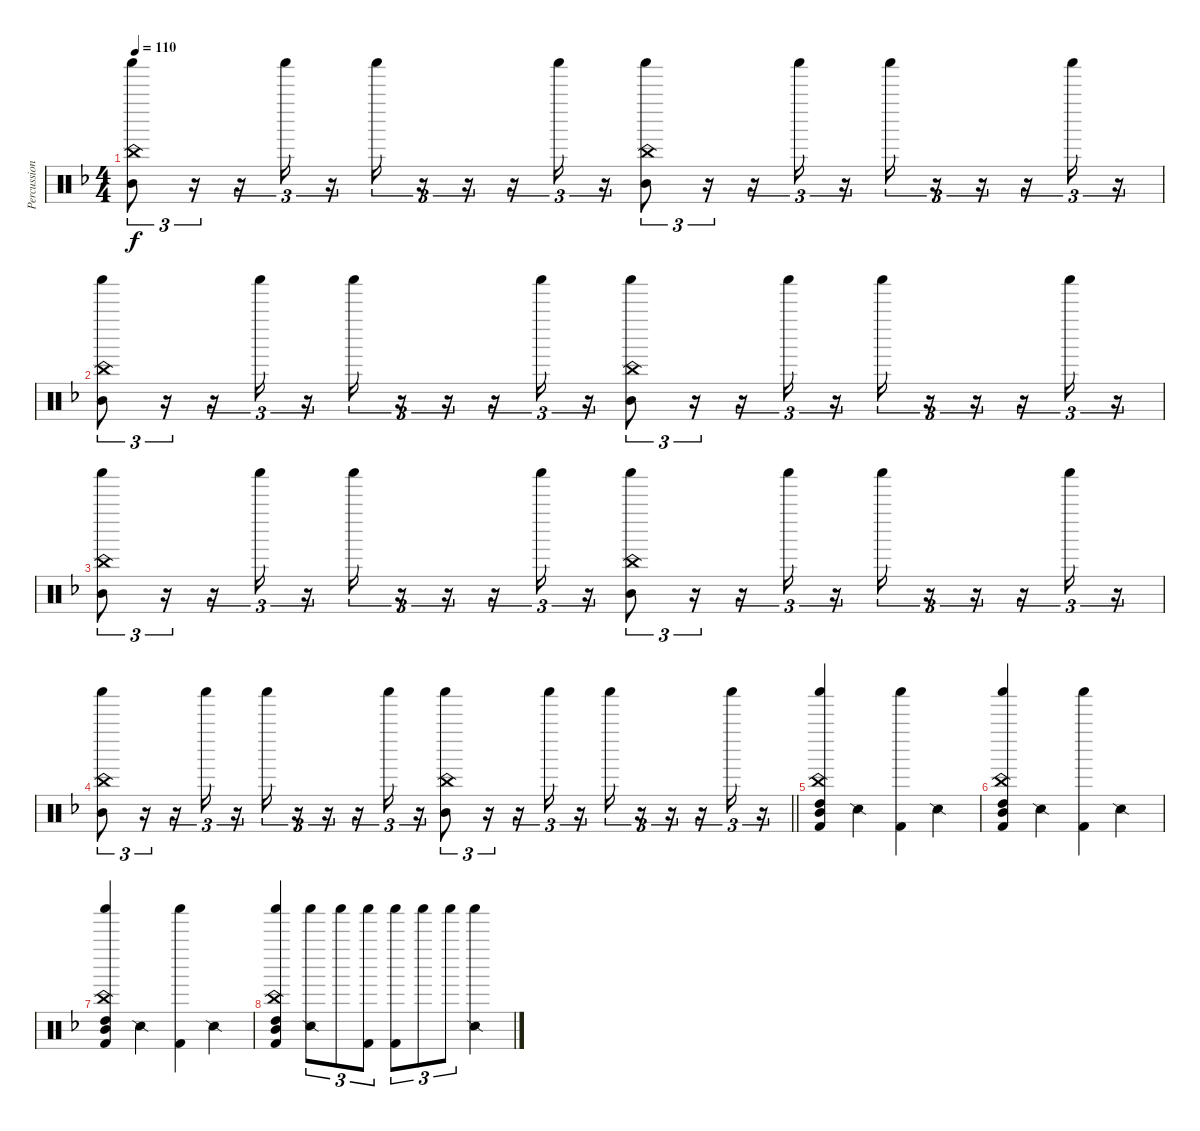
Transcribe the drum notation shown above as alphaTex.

\track ("Percussion" "Percussion") {instrument percussion}
\staff {score}
\articulation defaults
\ts (4 4)
\tempo 110
\clef neutral
\ks f
("Mid Tom (hit)" "China (hit)" "Shaker (hit)").8{tu (3 2) dy f} r.16{tu (3 2)} r.16{tu (3 2)} "Shaker (hit)".16{tu (3 2)} r.16{tu (3 2)} "Shaker (hit)".16{tu (3 2)} r.16{tu (3 2)} r.16{tu (3 2)} r.16{tu (3 2)} "Shaker (hit)".16{tu (3 2)} r.16{tu (3 2)} ("Mid Tom (hit)" "China (hit)" "Shaker (hit)").8{tu (3 2)} r.16{tu (3 2)} r.16{tu (3 2)} "Shaker (hit)".16{tu (3 2)} r.16{tu (3 2)} "Shaker (hit)".16{tu (3 2)} r.16{tu (3 2)} r.16{tu (3 2)} r.16{tu (3 2)} "Shaker (hit)".16{tu (3 2)} r.16{tu (3 2)} |
("Mid Tom (hit)" "China (hit)" "Shaker (hit)").8{tu (3 2)} r.16{tu (3 2)} r.16{tu (3 2)} "Shaker (hit)".16{tu (3 2)} r.16{tu (3 2)} "Shaker (hit)".16{tu (3 2)} r.16{tu (3 2)} r.16{tu (3 2)} r.16{tu (3 2)} "Shaker (hit)".16{tu (3 2)} r.16{tu (3 2)} ("Mid Tom (hit)" "China (hit)" "Shaker (hit)").8{tu (3 2)} r.16{tu (3 2)} r.16{tu (3 2)} "Shaker (hit)".16{tu (3 2)} r.16{tu (3 2)} "Shaker (hit)".16{tu (3 2)} r.16{tu (3 2)} r.16{tu (3 2)} r.16{tu (3 2)} "Shaker (hit)".16{tu (3 2)} r.16{tu (3 2)} |
("Mid Tom (hit)" "China (hit)" "Shaker (hit)").8{tu (3 2)} r.16{tu (3 2)} r.16{tu (3 2)} "Shaker (hit)".16{tu (3 2)} r.16{tu (3 2)} "Shaker (hit)".16{tu (3 2)} r.16{tu (3 2)} r.16{tu (3 2)} r.16{tu (3 2)} "Shaker (hit)".16{tu (3 2)} r.16{tu (3 2)} ("Mid Tom (hit)" "China (hit)" "Shaker (hit)").8{tu (3 2)} r.16{tu (3 2)} r.16{tu (3 2)} "Shaker (hit)".16{tu (3 2)} r.16{tu (3 2)} "Shaker (hit)".16{tu (3 2)} r.16{tu (3 2)} r.16{tu (3 2)} r.16{tu (3 2)} "Shaker (hit)".16{tu (3 2)} r.16{tu (3 2)} |
\barLineRight lightlight
("Mid Tom (hit)" "China (hit)" "Shaker (hit)").8{tu (3 2)} r.16{tu (3 2)} r.16{tu (3 2)} "Shaker (hit)".16{tu (3 2)} r.16{tu (3 2)} "Shaker (hit)".16{tu (3 2)} r.16{tu (3 2)} r.16{tu (3 2)} r.16{tu (3 2)} "Shaker (hit)".16{tu (3 2)} r.16{tu (3 2)} ("Mid Tom (hit)" "China (hit)" "Shaker (hit)").8{tu (3 2)} r.16{tu (3 2)} r.16{tu (3 2)} "Shaker (hit)".16{tu (3 2)} r.16{tu (3 2)} "Shaker (hit)".16{tu (3 2)} r.16{tu (3 2)} r.16{tu (3 2)} r.16{tu (3 2)} "Shaker (hit)".16{tu (3 2)} r.16{tu (3 2)} |
\section ("" "")
("Mid Tom (hit)" "China (hit)" "Shaker (hit)" "High Tom (hit)" "Kick (hit) 2").4 "Snare (side stick) 2".4 ("Shaker (hit)" "Kick (hit) 2").4 "Snare (side stick) 2".4 |
("Mid Tom (hit)" "China (hit)" "Shaker (hit)" "High Tom (hit)" "Kick (hit) 2").4 "Snare (side stick) 2".4 ("Shaker (hit)" "Kick (hit) 2").4 "Snare (side stick) 2".4 |
("Mid Tom (hit)" "China (hit)" "Shaker (hit)" "High Tom (hit)" "Kick (hit) 2").4 "Snare (side stick) 2".4 ("Shaker (hit)" "Kick (hit) 2").4 "Snare (side stick) 2".4 |
("Mid Tom (hit)" "China (hit)" "Shaker (hit)" "High Tom (hit)" "Kick (hit) 2").4 ("Snare (side stick) 2" "Shaker (hit)").8{tu (3 2)} "Shaker (hit)".8{tu (3 2)} ("Shaker (hit)" "Kick (hit) 2").8{tu (3 2)} ("Shaker (hit)" "Kick (hit) 2").8{tu (3 2)} "Shaker (hit)".8{tu (3 2)} "Shaker (hit)".8{tu (3 2)} ("Snare (side stick) 2" "Shaker (hit)").4
